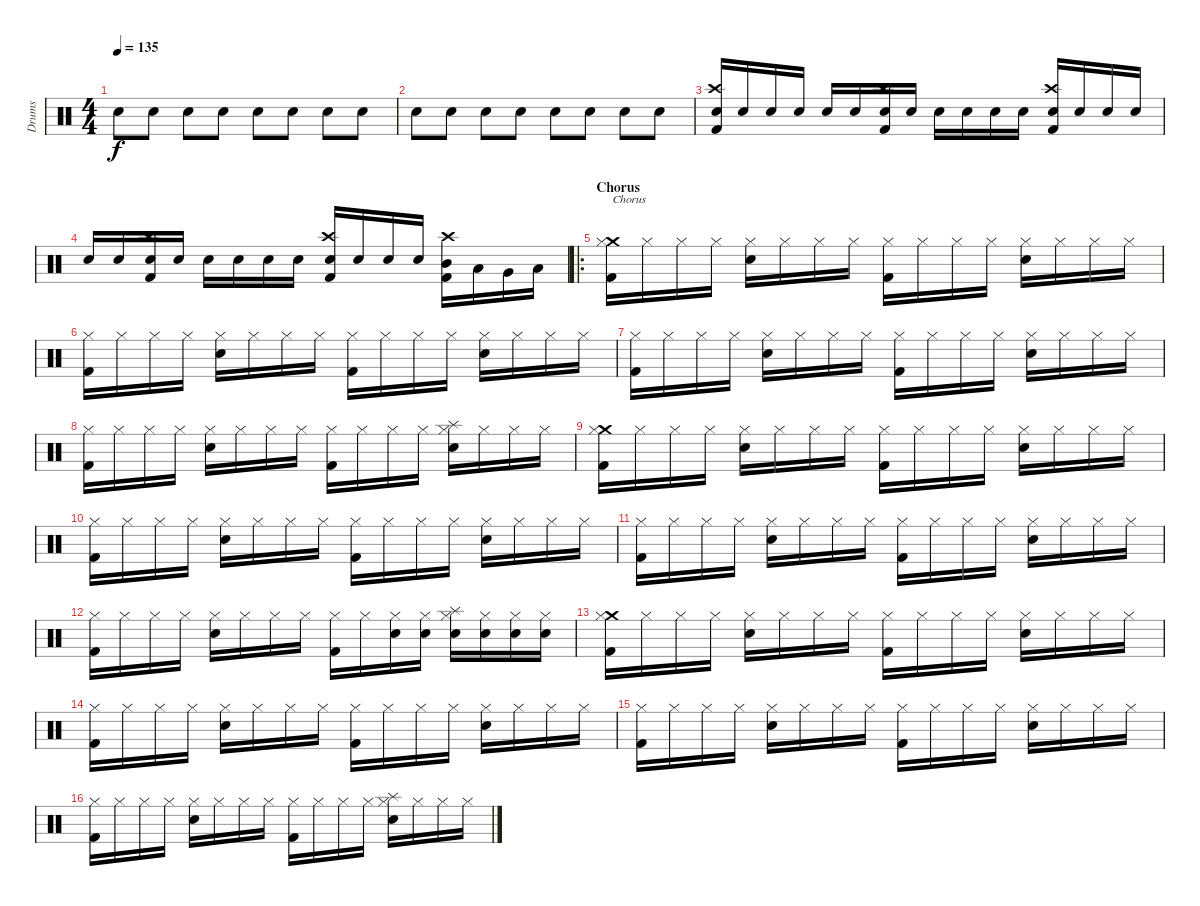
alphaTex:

\track ("Drums" "Drums") {instrument percussion}
\staff {score}
\articulation defaults
\ts (4 4)
\tempo 135
\clef neutral
\ks c "Snare (hit) 2".8{dy f} "Snare (hit) 2".8 "Snare (hit) 2".8 "Snare (hit) 2".8 "Snare (hit) 2".8 "Snare (hit) 2".8 "Snare (hit) 2".8 "Snare (hit) 2".8
|
"Snare (hit) 2".8 "Snare (hit) 2".8 "Snare (hit) 2".8 "Snare (hit) 2".8 "Snare (hit) 2".8 "Snare (hit) 2".8 "Snare (hit) 2".8 "Snare (hit) 2".8 |
("Crash high (hit)" "Snare (hit) 2" "Kick (hit) 2").16 "Snare (hit) 2".16 "Snare (hit) 2".16 "Snare (hit) 2".16 "Snare (hit) 2".16 "Snare (hit) 2".16 ("Crash high (hit)" "Snare (hit) 2" "Kick (hit) 2").16 "Snare (hit) 2".16 "Snare (hit) 2".16 "Snare (hit) 2".16 "Snare (hit) 2".16 "Snare (hit) 2".16 ("Crash high (hit)" "Snare (hit) 2" "Kick (hit) 2").16 "Snare (hit) 2".16 "Snare (hit) 2".16 "Snare (hit) 2".16 |
"Snare (hit) 2".16 "Snare (hit) 2".16 ("Crash high (hit)" "Snare (hit) 2" "Kick (hit) 2").16 "Snare (hit) 2".16 "Snare (hit) 2".16 "Snare (hit) 2".16 "Snare (hit) 2".16 "Snare (hit) 2".16 ("Crash high (hit)" "Snare (hit) 2" "Kick (hit) 2").16 "Snare (hit) 2".16 "Snare (hit) 2".16 "Snare (hit) 2".16 ("Crash high (hit)" "Mid Tom (hit)" "Kick (hit) 2").16 "Low Tom (hit)".16 "Very Low Tom (hit)".16 "Low Floor Tom (hit)".16 |
\ro
\section ("" "Chorus")
("Crash medium (hit)" "Hi-Hat (closed)" "Kick (hit) 2").16{txt "Chorus"} "Hi-Hat (closed)".16 "Hi-Hat (closed)".16 "Hi-Hat (closed)".16 ("Hi-Hat (closed)" "Snare (hit) 2").16 "Hi-Hat (closed)".16 "Hi-Hat (closed)".16 "Hi-Hat (closed)".16 ("Hi-Hat (closed)" "Kick (hit) 2").16 "Hi-Hat (closed)".16 "Hi-Hat (closed)".16 "Hi-Hat (closed)".16 ("Hi-Hat (closed)" "Snare (hit) 2").16 "Hi-Hat (closed)".16 "Hi-Hat (closed)".16 "Hi-Hat (closed)".16 |
("Hi-Hat (closed)" "Kick (hit) 2").16 "Hi-Hat (closed)".16 "Hi-Hat (closed)".16 "Hi-Hat (closed)".16 ("Hi-Hat (closed)" "Snare (hit) 2").16 "Hi-Hat (closed)".16 "Hi-Hat (closed)".16 "Hi-Hat (closed)".16 ("Hi-Hat (closed)" "Kick (hit) 2").16 "Hi-Hat (closed)".16 "Hi-Hat (closed)".16 "Hi-Hat (closed)".16 ("Hi-Hat (closed)" "Snare (hit) 2").16 "Hi-Hat (closed)".16 "Hi-Hat (closed)".16 "Hi-Hat (closed)".16 |
("Hi-Hat (closed)" "Kick (hit) 2").16 "Hi-Hat (closed)".16 "Hi-Hat (closed)".16 "Hi-Hat (closed)".16 ("Hi-Hat (closed)" "Snare (hit) 2").16 "Hi-Hat (closed)".16 "Hi-Hat (closed)".16 "Hi-Hat (closed)".16 ("Hi-Hat (closed)" "Kick (hit) 2").16 "Hi-Hat (closed)".16 "Hi-Hat (closed)".16 "Hi-Hat (closed)".16 ("Hi-Hat (closed)" "Snare (hit) 2").16 "Hi-Hat (closed)".16 "Hi-Hat (closed)".16 "Hi-Hat (closed)".16 |
("Hi-Hat (closed)" "Kick (hit) 2").16 "Hi-Hat (closed)".16 "Hi-Hat (closed)".16 "Hi-Hat (closed)".16 ("Hi-Hat (closed)" "Snare (hit) 2").16 "Hi-Hat (closed)".16 "Hi-Hat (closed)".16 "Hi-Hat (closed)".16 ("Hi-Hat (closed)" "Kick (hit) 2").16 "Hi-Hat (closed)".16 "Hi-Hat (closed)".16 "Hi-Hat (closed)".16 ("Splash (hit)" "Hi-Hat (closed)" "Snare (hit) 2").16 "Hi-Hat (closed)".16 "Hi-Hat (closed)".16 "Hi-Hat (closed)".16 |
("Crash medium (hit)" "Hi-Hat (closed)" "Kick (hit) 2").16 "Hi-Hat (closed)".16 "Hi-Hat (closed)".16 "Hi-Hat (closed)".16 ("Hi-Hat (closed)" "Snare (hit) 2").16 "Hi-Hat (closed)".16 "Hi-Hat (closed)".16 "Hi-Hat (closed)".16 ("Hi-Hat (closed)" "Kick (hit) 2").16 "Hi-Hat (closed)".16 "Hi-Hat (closed)".16 "Hi-Hat (closed)".16 ("Hi-Hat (closed)" "Snare (hit) 2").16 "Hi-Hat (closed)".16 "Hi-Hat (closed)".16 "Hi-Hat (closed)".16 |
("Hi-Hat (closed)" "Kick (hit) 2").16 "Hi-Hat (closed)".16 "Hi-Hat (closed)".16 "Hi-Hat (closed)".16 ("Hi-Hat (closed)" "Snare (hit) 2").16 "Hi-Hat (closed)".16 "Hi-Hat (closed)".16 "Hi-Hat (closed)".16 ("Hi-Hat (closed)" "Kick (hit) 2").16 "Hi-Hat (closed)".16 "Hi-Hat (closed)".16 "Hi-Hat (closed)".16 ("Hi-Hat (closed)" "Snare (hit) 2").16 "Hi-Hat (closed)".16 "Hi-Hat (closed)".16 "Hi-Hat (closed)".16 |
("Hi-Hat (closed)" "Kick (hit) 2").16 "Hi-Hat (closed)".16 "Hi-Hat (closed)".16 "Hi-Hat (closed)".16 ("Hi-Hat (closed)" "Snare (hit) 2").16 "Hi-Hat (closed)".16 "Hi-Hat (closed)".16 "Hi-Hat (closed)".16 ("Hi-Hat (closed)" "Kick (hit) 2").16 "Hi-Hat (closed)".16 "Hi-Hat (closed)".16 "Hi-Hat (closed)".16 ("Hi-Hat (closed)" "Snare (hit) 2").16 "Hi-Hat (closed)".16 "Hi-Hat (closed)".16 "Hi-Hat (closed)".16 |
("Hi-Hat (closed)" "Kick (hit) 2").16 "Hi-Hat (closed)".16 "Hi-Hat (closed)".16 "Hi-Hat (closed)".16 ("Hi-Hat (closed)" "Snare (hit) 2").16 "Hi-Hat (closed)".16 "Hi-Hat (closed)".16 "Hi-Hat (closed)".16 ("Hi-Hat (closed)" "Kick (hit) 2").16 "Hi-Hat (closed)".16 ("Hi-Hat (closed)" "Snare (hit) 2").16 ("Hi-Hat (closed)" "Snare (hit) 2").16 ("Splash (hit)" "Hi-Hat (closed)" "Snare (hit) 2").16 ("Hi-Hat (closed)" "Snare (hit) 2").16 ("Hi-Hat (closed)" "Snare (hit) 2").16 ("Hi-Hat (closed)" "Snare (hit) 2").16 |
("Crash medium (hit)" "Hi-Hat (closed)" "Kick (hit) 2").16 "Hi-Hat (closed)".16 "Hi-Hat (closed)".16 "Hi-Hat (closed)".16 ("Hi-Hat (closed)" "Snare (hit) 2").16 "Hi-Hat (closed)".16 "Hi-Hat (closed)".16 "Hi-Hat (closed)".16 ("Hi-Hat (closed)" "Kick (hit) 2").16 "Hi-Hat (closed)".16 "Hi-Hat (closed)".16 "Hi-Hat (closed)".16 ("Hi-Hat (closed)" "Snare (hit) 2").16 "Hi-Hat (closed)".16 "Hi-Hat (closed)".16 "Hi-Hat (closed)".16 |
("Hi-Hat (closed)" "Kick (hit) 2").16 "Hi-Hat (closed)".16 "Hi-Hat (closed)".16 "Hi-Hat (closed)".16 ("Hi-Hat (closed)" "Snare (hit) 2").16 "Hi-Hat (closed)".16 "Hi-Hat (closed)".16 "Hi-Hat (closed)".16 ("Hi-Hat (closed)" "Kick (hit) 2").16 "Hi-Hat (closed)".16 "Hi-Hat (closed)".16 "Hi-Hat (closed)".16 ("Hi-Hat (closed)" "Snare (hit) 2").16 "Hi-Hat (closed)".16 "Hi-Hat (closed)".16 "Hi-Hat (closed)".16 |
("Hi-Hat (closed)" "Kick (hit) 2").16 "Hi-Hat (closed)".16 "Hi-Hat (closed)".16 "Hi-Hat (closed)".16 ("Hi-Hat (closed)" "Snare (hit) 2").16 "Hi-Hat (closed)".16 "Hi-Hat (closed)".16 "Hi-Hat (closed)".16 ("Hi-Hat (closed)" "Kick (hit) 2").16 "Hi-Hat (closed)".16 "Hi-Hat (closed)".16 "Hi-Hat (closed)".16 ("Hi-Hat (closed)" "Snare (hit) 2").16 "Hi-Hat (closed)".16 "Hi-Hat (closed)".16 "Hi-Hat (closed)".16 |
("Hi-Hat (closed)" "Kick (hit) 2").16 "Hi-Hat (closed)".16 "Hi-Hat (closed)".16 "Hi-Hat (closed)".16 ("Hi-Hat (closed)" "Snare (hit) 2").16 "Hi-Hat (closed)".16 "Hi-Hat (closed)".16 "Hi-Hat (closed)".16 ("Hi-Hat (closed)" "Kick (hit) 2").16 "Hi-Hat (closed)".16 "Hi-Hat (closed)".16 "Hi-Hat (closed)".16 ("Splash (hit)" "Hi-Hat (closed)" "Snare (hit) 2").16 "Hi-Hat (closed)".16 "Hi-Hat (closed)".16 "Hi-Hat (closed)".16
